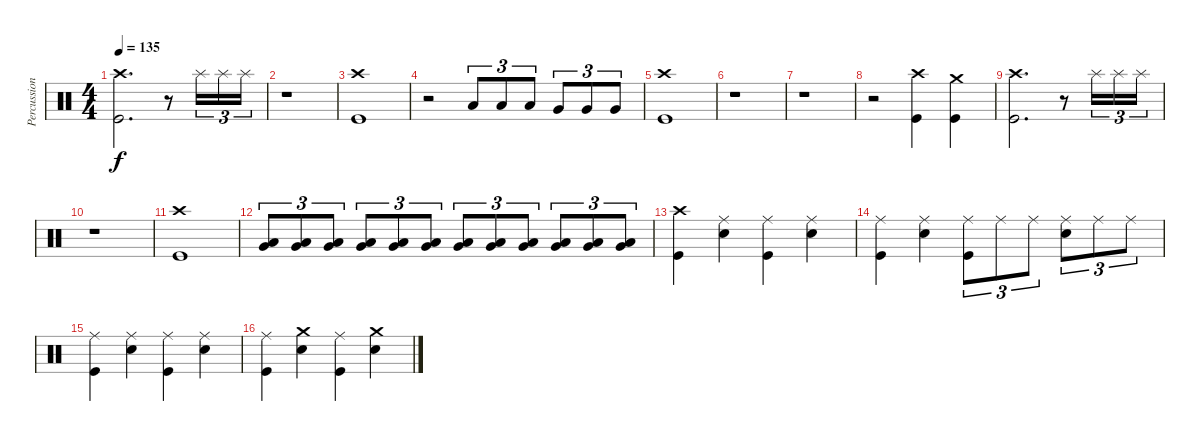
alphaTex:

\track ("Percussions" "Percussion") {instrument percussion}
\staff {score}
\articulation defaults
\ts (4 4)
\tempo 135
\clef neutral
\ks c
("Crash high (hit)" "Kick (hit)").2{d dy f} r.8 "Splash (hit)".16{tu (3 2)} "Splash (hit)".16{tu (3 2)} "Splash (hit)".16{tu (3 2)} |
r.1 |
("Crash high (hit)" "Kick (hit)").1 |
r.2 "Low Tom (hit)".8{tu (3 2)} "Low Tom (hit)".8{tu (3 2)} "Low Tom (hit)".8{tu (3 2)} "Very Low Tom (hit)".8{tu (3 2)} "Very Low Tom (hit)".8{tu (3 2)} "Very Low Tom (hit)".8{tu (3 2)} |
("Crash high (hit)" "Kick (hit)").1 |
r.1 |
r.1 |
r.2 ("Crash high (hit)" "Kick (hit)").4 ("Crash medium (hit)" "Kick (hit)").4 |
("Crash high (hit)" "Kick (hit)").2{d} r.8 "Splash (hit)".16{tu (3 2)} "Splash (hit)".16{tu (3 2)} "Splash (hit)".16{tu (3 2)} |
r.1 |
("Crash high (hit)" "Kick (hit)").1 |
("Low Tom (hit)" "Very Low Tom (hit)").8{tu (3 2)} ("Low Tom (hit)" "Very Low Tom (hit)").8{tu (3 2)} ("Low Tom (hit)" "Very Low Tom (hit)").8{tu (3 2)} ("Low Tom (hit)" "Very Low Tom (hit)").8{tu (3 2)} ("Low Tom (hit)" "Very Low Tom (hit)").8{tu (3 2)} ("Low Tom (hit)" "Very Low Tom (hit)").8{tu (3 2)} ("Low Tom (hit)" "Very Low Tom (hit)").8{tu (3 2)} ("Low Tom (hit)" "Very Low Tom (hit)").8{tu (3 2)} ("Low Tom (hit)" "Very Low Tom (hit)").8{tu (3 2)} ("Low Tom (hit)" "Very Low Tom (hit)").8{tu (3 2)} ("Low Tom (hit)" "Very Low Tom (hit)").8{tu (3 2)} ("Low Tom (hit)" "Very Low Tom (hit)").8{tu (3 2)} |
("Crash high (hit)" "Kick (hit)").4 ("Ride (middle)" "Electric Snare (hit)").4 ("Ride (middle)" "Kick (hit)").4 ("Ride (middle)" "Electric Snare (hit)").4 |
("Ride (middle)" "Kick (hit)").4 ("Ride (middle)" "Electric Snare (hit)").4 ("Ride (middle)" "Kick (hit)").8{tu (3 2)} "Ride (middle)".8{tu (3 2)} "Ride (middle)".8{tu (3 2)} ("Ride (middle)" "Electric Snare (hit)").8{tu (3 2)} "Ride (middle)".8{tu (3 2)} "Ride (middle)".8{tu (3 2)} |
("Ride (middle)" "Kick (hit)").4 ("Ride (middle)" "Electric Snare (hit)").4 ("Ride (middle)" "Kick (hit)").4 ("Ride (middle)" "Electric Snare (hit)").4 |
("Ride (middle)" "Kick (hit)").4 ("Crash medium (hit)" "Electric Snare (hit)").4 ("Ride (middle)" "Kick (hit)").4 ("Crash medium (hit)" "Electric Snare (hit)").4
